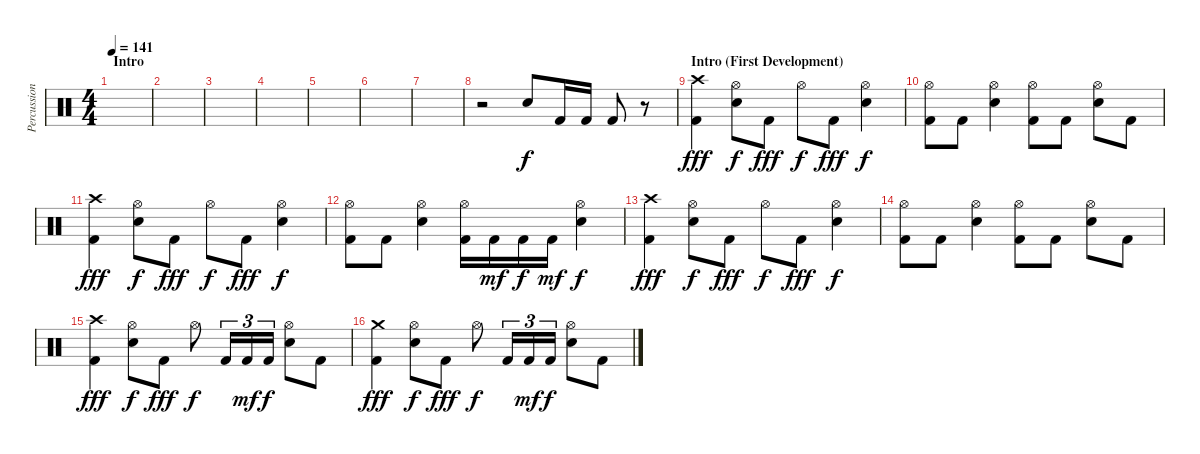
\track ("Percussion" "Percussion") {instrument percussion}
\staff {score}
\articulation defaults
\ts (4 4)
\section ("" "Intro")
\tempo 141
\clef neutral
\ks c
|
|
|
|
|
|
|
r.2 "Snare (hit) 2".8 "Kick (hit) 2".16 "Kick (hit) 2".16 "Kick (hit) 2".8 r.8 |
\section ("" "Intro (First Development)")
("Crash high (hit)" "Kick (hit) 2").4{dy fff} ("Hi-Hat (open)" "Snare (hit) 2").8{dy f} "Kick (hit) 2".8{dy fff} "Hi-Hat (open)".8{dy f} "Kick (hit) 2".8{dy fff} ("Hi-Hat (open)" "Snare (hit) 2").4{dy f} |
("Hi-Hat (open)" "Kick (hit) 2").8 "Kick (hit) 2".8 ("Hi-Hat (open)" "Snare (hit) 2").4 ("Hi-Hat (open)" "Kick (hit) 2").8 "Kick (hit) 2".8 ("Hi-Hat (open)" "Snare (hit) 2").8 "Kick (hit) 2".8 |
("Crash high (hit)" "Kick (hit) 2").4{dy fff} ("Hi-Hat (open)" "Snare (hit) 2").8{dy f} "Kick (hit) 2".8{dy fff} "Hi-Hat (open)".8{dy f} "Kick (hit) 2".8{dy fff} ("Hi-Hat (open)" "Snare (hit) 2").4{dy f} |
("Hi-Hat (open)" "Kick (hit) 2").8 "Kick (hit) 2".8 ("Hi-Hat (open)" "Snare (hit) 2").4 ("Hi-Hat (open)" "Kick (hit) 2").16 "Kick (hit) 2".16{dy mf} "Kick (hit) 2".16{dy f} "Kick (hit) 2".16{dy mf} ("Hi-Hat (open)" "Snare (hit) 2").4{dy f} |
("Crash high (hit)" "Kick (hit) 2").4{dy fff} ("Hi-Hat (open)" "Snare (hit) 2").8{dy f} "Kick (hit) 2".8{dy fff} "Hi-Hat (open)".8{dy f} "Kick (hit) 2".8{dy fff} ("Hi-Hat (open)" "Snare (hit) 2").4{dy f} |
("Hi-Hat (open)" "Kick (hit) 2").8 "Kick (hit) 2".8 ("Hi-Hat (open)" "Snare (hit) 2").4 ("Hi-Hat (open)" "Kick (hit) 2").8 "Kick (hit) 2".8 ("Hi-Hat (open)" "Snare (hit) 2").8 "Kick (hit) 2".8 |
("Crash high (hit)" "Kick (hit) 2").4{dy fff} ("Hi-Hat (open)" "Snare (hit) 2").8{dy f} "Kick (hit) 2".8{dy fff} "Hi-Hat (open)".8{dy f} "Kick (hit) 2".16{tu (3 2)} "Kick (hit) 2".16{tu (3 2) dy mf} "Kick (hit) 2".16{tu (3 2) dy f} ("Hi-Hat (open)" "Snare (hit) 2").8 "Kick (hit) 2".8 |
("Crash medium (hit)" "Kick (hit) 2").4{dy fff} ("Hi-Hat (open)" "Snare (hit) 2").8{dy f} "Kick (hit) 2".8{dy fff} "Hi-Hat (open)".8{dy f} "Kick (hit) 2".16{tu (3 2)} "Kick (hit) 2".16{tu (3 2) dy mf} "Kick (hit) 2".16{tu (3 2) dy f} ("Hi-Hat (open)" "Snare (hit) 2").8 "Kick (hit) 2".8
